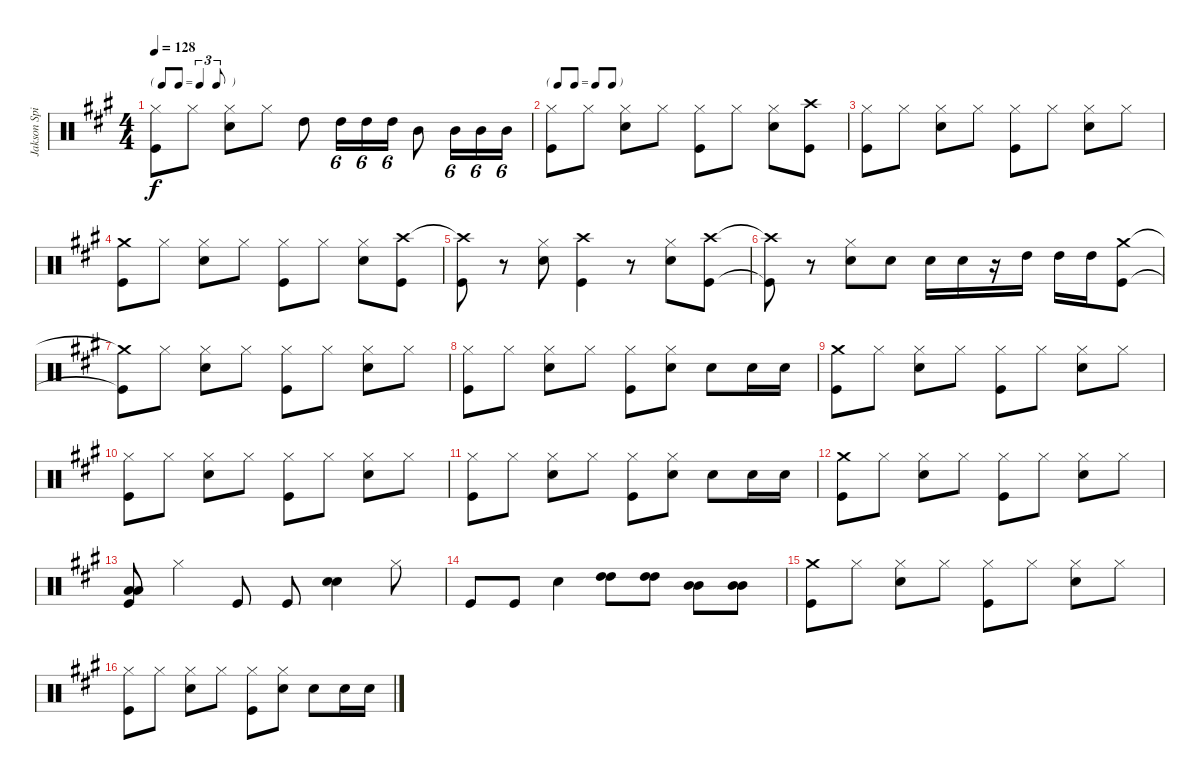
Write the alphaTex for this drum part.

\track ("Jakson Spires Drums" "Jakson Spi") {instrument percussion}
\staff {score}
\articulation defaults
\ts (4 4)
\tf triplet8th
\tempo 128
\clef neutral
\ks a
("Hi-Hat (closed)" "Kick (hit)").8{dy f} "Hi-Hat (closed)".8 ("Hi-Hat (closed)" "Snare (hit) 2").8 "Hi-Hat (closed)".8 "High Tom (hit)".8 "High Tom (hit)".16{tu (6 4)} "High Tom (hit)".16{tu (6 4)} "High Tom (hit)".16{tu (6 4)} "Mid Tom (hit)".8 "Mid Tom (hit)".16{tu (6 4)} "Mid Tom (hit)".16{tu (6 4)} "Mid Tom (hit)".16{tu (6 4)} |
\tf none
("Hi-Hat (closed)" "Kick (hit)").8 "Hi-Hat (closed)".8 ("Hi-Hat (closed)" "Snare (hit) 2").8 "Hi-Hat (closed)".8 ("Hi-Hat (closed)" "Kick (hit)").8 "Hi-Hat (closed)".8 ("Hi-Hat (closed)" "Snare (hit) 2").8 ("Crash high (hit)" "Kick (hit)").8 |
("Hi-Hat (closed)" "Kick (hit)").8 "Hi-Hat (closed)".8 ("Hi-Hat (closed)" "Snare (hit) 2").8 "Hi-Hat (closed)".8 ("Hi-Hat (closed)" "Kick (hit)").8 "Hi-Hat (closed)".8 ("Hi-Hat (closed)" "Snare (hit) 2").8 "Hi-Hat (closed)".8 |
("Crash medium (hit)" "Kick (hit)").8 "Hi-Hat (closed)".8 ("Hi-Hat (closed)" "Snare (hit) 2").8 "Hi-Hat (closed)".8 ("Hi-Hat (closed)" "Kick (hit)").8 "Hi-Hat (closed)".8 ("Hi-Hat (closed)" "Snare (hit) 2").8 ("Crash high (hit)" "Kick (hit)").8 |
("Crash high (hit)"{t} "Kick (hit)").8 r.8 ("Hi-Hat (closed)" "Snare (hit) 2").8 ("Crash high (hit)" "Kick (hit)").4 r.8 ("Hi-Hat (closed)" "Snare (hit) 2").8 ("Crash high (hit)" "Kick (hit)").8 |
("Crash high (hit)"{t} "Kick (hit)"{t}).8 r.8 ("Hi-Hat (closed)" "Snare (hit) 2").8 "Snare (hit) 2".8 "Snare (hit) 2".16 "Snare (hit) 2".16 r.16 "High Tom (hit)".16 "High Tom (hit)".16 "High Tom (hit)".16 ("Crash medium (hit)" "Kick (hit)").8 |
("Crash medium (hit)"{t} "Kick (hit)"{t}).8 "Hi-Hat (closed)".8 ("Hi-Hat (closed)" "Snare (hit) 2").8 "Hi-Hat (closed)".8 ("Hi-Hat (closed)" "Kick (hit)").8 "Hi-Hat (closed)".8 ("Hi-Hat (closed)" "Snare (hit) 2").8 "Hi-Hat (closed)".8 |
("Hi-Hat (closed)" "Kick (hit)").8 "Hi-Hat (closed)".8 ("Hi-Hat (closed)" "Snare (hit) 2").8 "Hi-Hat (closed)".8 ("Hi-Hat (closed)" "Kick (hit)").8 ("Hi-Hat (closed)" "Snare (hit) 2").8 "Snare (hit) 2".8 "Snare (hit) 2".16 "Snare (hit) 2".16 |
("Crash medium (hit)" "Kick (hit)").8 "Hi-Hat (closed)".8 ("Hi-Hat (closed)" "Snare (hit) 2").8 "Hi-Hat (closed)".8 ("Hi-Hat (closed)" "Kick (hit)").8 "Hi-Hat (closed)".8 ("Hi-Hat (closed)" "Snare (hit) 2").8 "Hi-Hat (closed)".8 |
("Hi-Hat (closed)" "Kick (hit)").8 "Hi-Hat (closed)".8 ("Hi-Hat (closed)" "Snare (hit) 2").8 "Hi-Hat (closed)".8 ("Hi-Hat (closed)" "Kick (hit)").8 "Hi-Hat (closed)".8 ("Hi-Hat (closed)" "Snare (hit) 2").8 "Hi-Hat (closed)".8 |
("Hi-Hat (closed)" "Kick (hit)").8 "Hi-Hat (closed)".8 ("Hi-Hat (closed)" "Snare (hit) 2").8 "Hi-Hat (closed)".8 ("Hi-Hat (closed)" "Kick (hit)").8 ("Hi-Hat (closed)" "Snare (hit) 2").8 "Snare (hit) 2".8 "Snare (hit) 2".16 "Snare (hit) 2".16 |
("Crash medium (hit)" "Kick (hit)").8 "Hi-Hat (closed)".8 ("Hi-Hat (closed)" "Snare (hit) 2").8 "Hi-Hat (closed)".8 ("Hi-Hat (closed)" "Kick (hit)").8 "Hi-Hat (closed)".8 ("Hi-Hat (closed)" "Snare (hit) 2").8 "Hi-Hat (closed)".8 |
("Low Tom (hit)" "Low Tom (hit)" "Kick (hit)").8 "Hi-Hat (closed)".4 "Kick (hit)".8 "Kick (hit)".8 ("Snare (hit) 2" "Snare (hit) 2").4 "Hi-Hat (closed)".8 |
"Kick (hit)".8 "Kick (hit)".8 "Snare (hit) 2".4 ("High Tom (hit)" "High Tom (hit)").8 ("High Tom (hit)" "High Tom (hit)").8 ("Mid Tom (hit)" "Mid Tom (hit)").8 ("Mid Tom (hit)" "Mid Tom (hit)").8 |
("Crash medium (hit)" "Kick (hit)").8 "Hi-Hat (closed)".8 ("Hi-Hat (closed)" "Snare (hit) 2").8 "Hi-Hat (closed)".8 ("Hi-Hat (closed)" "Kick (hit)").8 "Hi-Hat (closed)".8 ("Hi-Hat (closed)" "Snare (hit) 2").8 "Hi-Hat (closed)".8 |
("Hi-Hat (closed)" "Kick (hit)").8 "Hi-Hat (closed)".8 ("Hi-Hat (closed)" "Snare (hit) 2").8 "Hi-Hat (closed)".8 ("Hi-Hat (closed)" "Kick (hit)").8 ("Hi-Hat (closed)" "Snare (hit) 2").8 "Snare (hit) 2".8 "Snare (hit) 2".16 "Snare (hit) 2".16
